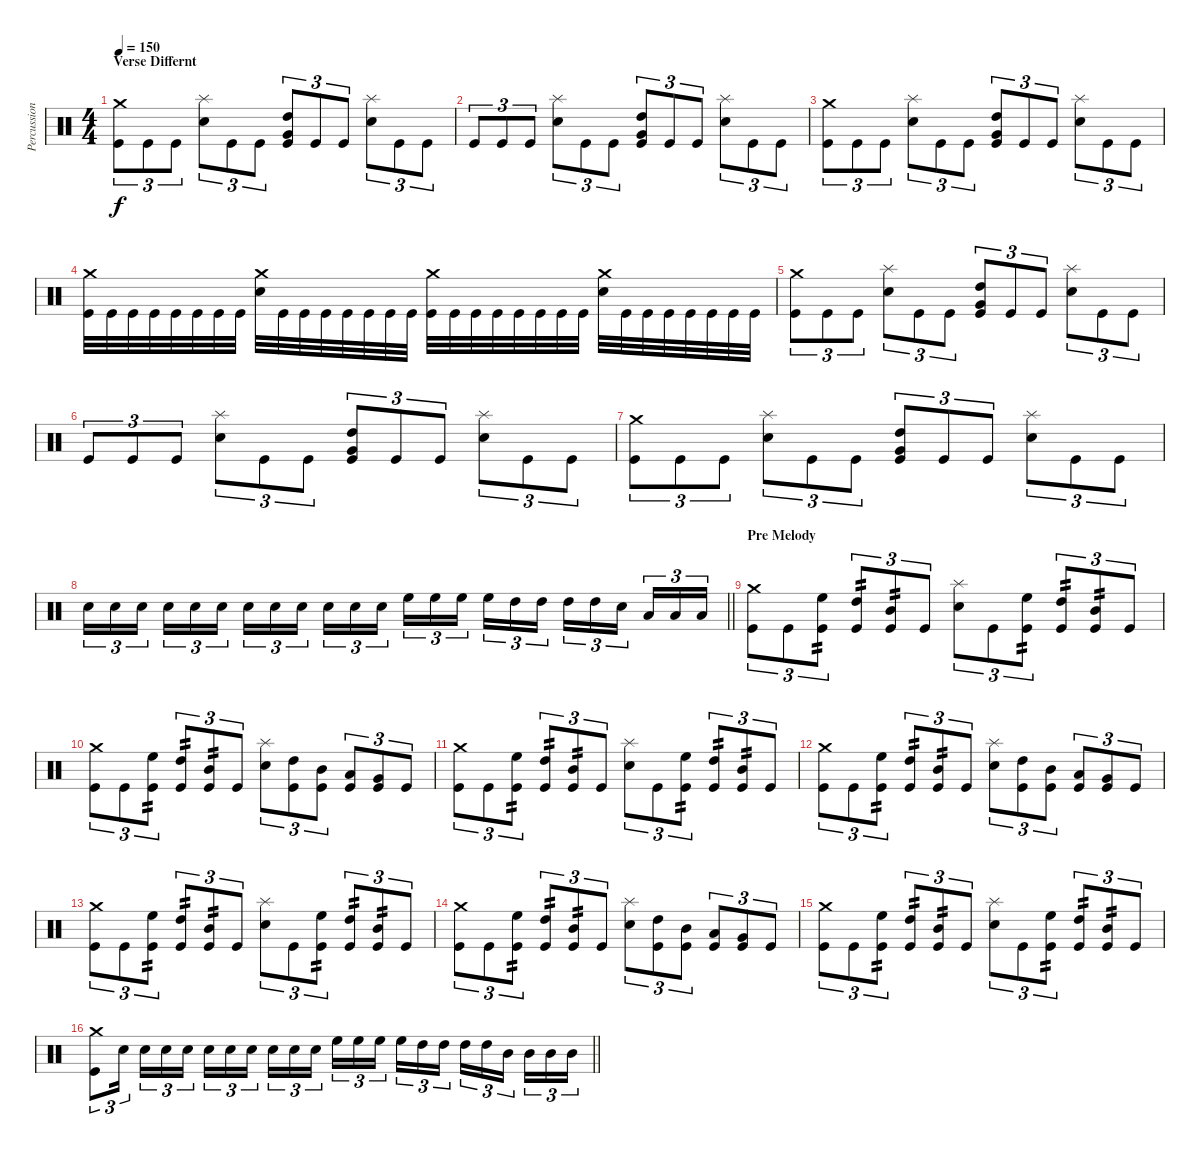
\track ("Percussion" "Percussion") {instrument percussion}
\staff {score}
\articulation defaults
\ts (4 4)
\section ("" "Verse Differnt")
\tempo 150
\clef neutral
\ks c
("Crash medium (hit)" "Kick (hit)").8{tu (3 2) dy f} "Kick (hit)".8{tu (3 2)} "Kick (hit)".8{tu (3 2)} ("Splash (hit)" "Snare (hit) 2").8{tu (3 2)} "Kick (hit)".8{tu (3 2)} "Kick (hit)".8{tu (3 2)} ("Kick (hit)" "High Tom (hit)" "Very Low Tom (hit)").8{tu (3 2)} "Kick (hit)".8{tu (3 2)} "Kick (hit)".8{tu (3 2)} ("Splash (hit)" "Snare (hit) 2").8{tu (3 2)} "Kick (hit)".8{tu (3 2)} "Kick (hit)".8{tu (3 2)} |
"Kick (hit)".8{tu (3 2)} "Kick (hit)".8{tu (3 2)} "Kick (hit)".8{tu (3 2)} ("Splash (hit)" "Snare (hit) 2").8{tu (3 2)} "Kick (hit)".8{tu (3 2)} "Kick (hit)".8{tu (3 2)} ("Kick (hit)" "High Tom (hit)" "Very Low Tom (hit)").8{tu (3 2)} "Kick (hit)".8{tu (3 2)} "Kick (hit)".8{tu (3 2)} ("Splash (hit)" "Snare (hit) 2").8{tu (3 2)} "Kick (hit)".8{tu (3 2)} "Kick (hit)".8{tu (3 2)} |
("Crash medium (hit)" "Kick (hit)").8{tu (3 2)} "Kick (hit)".8{tu (3 2)} "Kick (hit)".8{tu (3 2)} ("Splash (hit)" "Snare (hit) 2").8{tu (3 2)} "Kick (hit)".8{tu (3 2)} "Kick (hit)".8{tu (3 2)} ("Kick (hit)" "High Tom (hit)" "Very Low Tom (hit)").8{tu (3 2)} "Kick (hit)".8{tu (3 2)} "Kick (hit)".8{tu (3 2)} ("Splash (hit)" "Snare (hit) 2").8{tu (3 2)} "Kick (hit)".8{tu (3 2)} "Kick (hit)".8{tu (3 2)} |
("Crash medium (hit)" "Kick (hit)").32 "Kick (hit)".32 "Kick (hit)".32 "Kick (hit)".32 "Kick (hit)".32 "Kick (hit)".32 "Kick (hit)".32 "Kick (hit)".32 ("Crash medium (hit)" "Snare (hit) 2").32 "Kick (hit)".32 "Kick (hit)".32 "Kick (hit)".32 "Kick (hit)".32 "Kick (hit)".32 "Kick (hit)".32 "Kick (hit)".32 ("Crash medium (hit)" "Kick (hit)").32 "Kick (hit)".32 "Kick (hit)".32 "Kick (hit)".32 "Kick (hit)".32 "Kick (hit)".32 "Kick (hit)".32 "Kick (hit)".32 ("Crash medium (hit)" "Snare (hit) 2").32 "Kick (hit)".32 "Kick (hit)".32 "Kick (hit)".32 "Kick (hit)".32 "Kick (hit)".32 "Kick (hit)".32 "Kick (hit)".32 |
("Crash medium (hit)" "Kick (hit)").8{tu (3 2)} "Kick (hit)".8{tu (3 2)} "Kick (hit)".8{tu (3 2)} ("Splash (hit)" "Snare (hit) 2").8{tu (3 2)} "Kick (hit)".8{tu (3 2)} "Kick (hit)".8{tu (3 2)} ("Kick (hit)" "High Tom (hit)" "Very Low Tom (hit)").8{tu (3 2)} "Kick (hit)".8{tu (3 2)} "Kick (hit)".8{tu (3 2)} ("Splash (hit)" "Snare (hit) 2").8{tu (3 2)} "Kick (hit)".8{tu (3 2)} "Kick (hit)".8{tu (3 2)} |
"Kick (hit)".8{tu (3 2)} "Kick (hit)".8{tu (3 2)} "Kick (hit)".8{tu (3 2)} ("Splash (hit)" "Snare (hit) 2").8{tu (3 2)} "Kick (hit)".8{tu (3 2)} "Kick (hit)".8{tu (3 2)} ("Kick (hit)" "High Tom (hit)" "Very Low Tom (hit)").8{tu (3 2)} "Kick (hit)".8{tu (3 2)} "Kick (hit)".8{tu (3 2)} ("Splash (hit)" "Snare (hit) 2").8{tu (3 2)} "Kick (hit)".8{tu (3 2)} "Kick (hit)".8{tu (3 2)} |
("Crash medium (hit)" "Kick (hit)").8{tu (3 2)} "Kick (hit)".8{tu (3 2)} "Kick (hit)".8{tu (3 2)} ("Splash (hit)" "Snare (hit) 2").8{tu (3 2)} "Kick (hit)".8{tu (3 2)} "Kick (hit)".8{tu (3 2)} ("Kick (hit)" "High Tom (hit)" "Very Low Tom (hit)").8{tu (3 2)} "Kick (hit)".8{tu (3 2)} "Kick (hit)".8{tu (3 2)} ("Splash (hit)" "Snare (hit) 2").8{tu (3 2)} "Kick (hit)".8{tu (3 2)} "Kick (hit)".8{tu (3 2)} |
\barLineRight lightlight "Snare (hit) 2".16{tu (3 2)} "Snare (hit) 2".16{tu (3 2)} "Snare (hit) 2".16{tu (3 2) beam splitsecondary} "Snare (hit) 2".16{tu (3 2)} "Snare (hit) 2".16{tu (3 2)} "Snare (hit) 2".16{tu (3 2)} "Snare (hit) 2".16{tu (3 2)} "Snare (hit) 2".16{tu (3 2)} "Snare (hit) 2".16{tu (3 2) beam splitsecondary} "Snare (hit) 2".16{tu (3 2)} "Snare (hit) 2".16{tu (3 2)} "Snare (hit) 2".16{tu (3 2)} "High Floor Tom (hit)".16{tu (3 2)} "High Floor Tom (hit)".16{tu (3 2)} "High Floor Tom (hit)".16{tu (3 2) beam splitsecondary} "High Floor Tom (hit)".16{tu (3 2)} "High Tom (hit)".16{tu (3 2)} "High Tom (hit)".16{tu (3 2)} "High Tom (hit)".16{tu (3 2)} "High Tom (hit)".16{tu (3 2)} "Snare (hit)".16{tu (3 2) beam splitsecondary} "Low Tom (hit)".16{tu (3 2)} "Low Tom (hit)".16{tu (3 2)} "Low Tom (hit)".16{tu (3 2)}
|
\section ("" "Pre Melody")
("Crash medium (hit)" "Kick (hit)").8{tu (3 2)} "Kick (hit)".8{tu (3 2)} ("High Floor Tom (hit)" "Kick (hit)").8{tu (3 2) tp 2} ("High Tom (hit)" "Kick (hit)").8{tu (3 2) tp 2} ("Mid Tom (hit)" "Kick (hit)").8{tu (3 2) tp 2} "Kick (hit)".8{tu (3 2)} ("Splash (hit)" "Snare (hit) 2").8{tu (3 2)} "Kick (hit)".8{tu (3 2)} ("High Floor Tom (hit)" "Kick (hit)").8{tu (3 2) tp 2} ("High Tom (hit)" "Kick (hit)").8{tu (3 2) tp 2} ("Mid Tom (hit)" "Kick (hit)").8{tu (3 2) tp 2} "Kick (hit)".8{tu (3 2)} |
("Crash medium (hit)" "Kick (hit)").8{tu (3 2)} "Kick (hit)".8{tu (3 2)} ("High Floor Tom (hit)" "Kick (hit)").8{tu (3 2) tp 2} ("High Tom (hit)" "Kick (hit)").8{tu (3 2) tp 2} ("Mid Tom (hit)" "Kick (hit)").8{tu (3 2) tp 2} "Kick (hit)".8{tu (3 2)} ("Splash (hit)" "Snare (hit) 2").8{tu (3 2)} ("High Tom (hit)" "Kick (hit)").8{tu (3 2)} ("Mid Tom (hit)" "Kick (hit)").8{tu (3 2)} ("Low Tom (hit)" "Kick (hit)").8{tu (3 2)} ("Very Low Tom (hit)" "Kick (hit)").8{tu (3 2)} "Kick (hit)".8{tu (3 2)} |
("Crash medium (hit)" "Kick (hit)").8{tu (3 2)} "Kick (hit)".8{tu (3 2)} ("High Floor Tom (hit)" "Kick (hit)").8{tu (3 2) tp 2} ("High Tom (hit)" "Kick (hit)").8{tu (3 2) tp 2} ("Mid Tom (hit)" "Kick (hit)").8{tu (3 2) tp 2} "Kick (hit)".8{tu (3 2)} ("Splash (hit)" "Snare (hit) 2").8{tu (3 2)} "Kick (hit)".8{tu (3 2)} ("High Floor Tom (hit)" "Kick (hit)").8{tu (3 2) tp 2} ("High Tom (hit)" "Kick (hit)").8{tu (3 2) tp 2} ("Mid Tom (hit)" "Kick (hit)").8{tu (3 2) tp 2} "Kick (hit)".8{tu (3 2)} |
("Crash medium (hit)" "Kick (hit)").8{tu (3 2)} "Kick (hit)".8{tu (3 2)} ("High Floor Tom (hit)" "Kick (hit)").8{tu (3 2) tp 2} ("High Tom (hit)" "Kick (hit)").8{tu (3 2) tp 2} ("Mid Tom (hit)" "Kick (hit)").8{tu (3 2) tp 2} "Kick (hit)".8{tu (3 2)} ("Splash (hit)" "Snare (hit) 2").8{tu (3 2)} ("High Tom (hit)" "Kick (hit)").8{tu (3 2)} ("Mid Tom (hit)" "Kick (hit)").8{tu (3 2)} ("Low Tom (hit)" "Kick (hit)").8{tu (3 2)} ("Very Low Tom (hit)" "Kick (hit)").8{tu (3 2)} "Kick (hit)".8{tu (3 2)} |
("Crash medium (hit)" "Kick (hit)").8{tu (3 2)} "Kick (hit)".8{tu (3 2)} ("High Floor Tom (hit)" "Kick (hit)").8{tu (3 2) tp 2} ("High Tom (hit)" "Kick (hit)").8{tu (3 2) tp 2} ("Mid Tom (hit)" "Kick (hit)").8{tu (3 2) tp 2} "Kick (hit)".8{tu (3 2)} ("Splash (hit)" "Snare (hit) 2").8{tu (3 2)} "Kick (hit)".8{tu (3 2)} ("High Floor Tom (hit)" "Kick (hit)").8{tu (3 2) tp 2} ("High Tom (hit)" "Kick (hit)").8{tu (3 2) tp 2} ("Mid Tom (hit)" "Kick (hit)").8{tu (3 2) tp 2} "Kick (hit)".8{tu (3 2)} |
("Crash medium (hit)" "Kick (hit)").8{tu (3 2)} "Kick (hit)".8{tu (3 2)} ("High Floor Tom (hit)" "Kick (hit)").8{tu (3 2) tp 2} ("High Tom (hit)" "Kick (hit)").8{tu (3 2) tp 2} ("Mid Tom (hit)" "Kick (hit)").8{tu (3 2) tp 2} "Kick (hit)".8{tu (3 2)} ("Splash (hit)" "Snare (hit) 2").8{tu (3 2)} ("High Tom (hit)" "Kick (hit)").8{tu (3 2)} ("Mid Tom (hit)" "Kick (hit)").8{tu (3 2)} ("Low Tom (hit)" "Kick (hit)").8{tu (3 2)} ("Very Low Tom (hit)" "Kick (hit)").8{tu (3 2)} "Kick (hit)".8{tu (3 2)} |
("Crash medium (hit)" "Kick (hit)").8{tu (3 2)} "Kick (hit)".8{tu (3 2)} ("High Floor Tom (hit)" "Kick (hit)").8{tu (3 2) tp 2} ("High Tom (hit)" "Kick (hit)").8{tu (3 2) tp 2} ("Mid Tom (hit)" "Kick (hit)").8{tu (3 2) tp 2} "Kick (hit)".8{tu (3 2)} ("Splash (hit)" "Snare (hit) 2").8{tu (3 2)} "Kick (hit)".8{tu (3 2)} ("High Floor Tom (hit)" "Kick (hit)").8{tu (3 2) tp 2} ("High Tom (hit)" "Kick (hit)").8{tu (3 2) tp 2} ("Mid Tom (hit)" "Kick (hit)").8{tu (3 2) tp 2} "Kick (hit)".8{tu (3 2)} |
\barLineRight lightlight
("Crash medium (hit)" "Kick (hit)").8{tu (3 2)} "Snare (hit) 2".16{tu (3 2) beam splitsecondary} "Snare (hit) 2".16{tu (3 2)} "Snare (hit) 2".16{tu (3 2)} "Snare (hit) 2".16{tu (3 2)} "Snare (hit) 2".16{tu (3 2)} "Snare (hit) 2".16{tu (3 2)} "Snare (hit) 2".16{tu (3 2) beam splitsecondary} "Snare (hit) 2".16{tu (3 2)} "Snare (hit) 2".16{tu (3 2)} "Snare (hit) 2".16{tu (3 2)} "High Floor Tom (hit)".16{tu (3 2)} "High Floor Tom (hit)".16{tu (3 2)} "High Floor Tom (hit)".16{tu (3 2) beam splitsecondary} "High Floor Tom (hit)".16{tu (3 2)} "High Tom (hit)".16{tu (3 2)} "High Tom (hit)".16{tu (3 2)} "High Tom (hit)".16{tu (3 2)} "High Tom (hit)".16{tu (3 2)} "Mid Tom (hit)".16{tu (3 2) beam splitsecondary} "Mid Tom (hit)".16{tu (3 2)} "Mid Tom (hit)".16{tu (3 2)} "Mid Tom (hit)".16{tu (3 2)}
